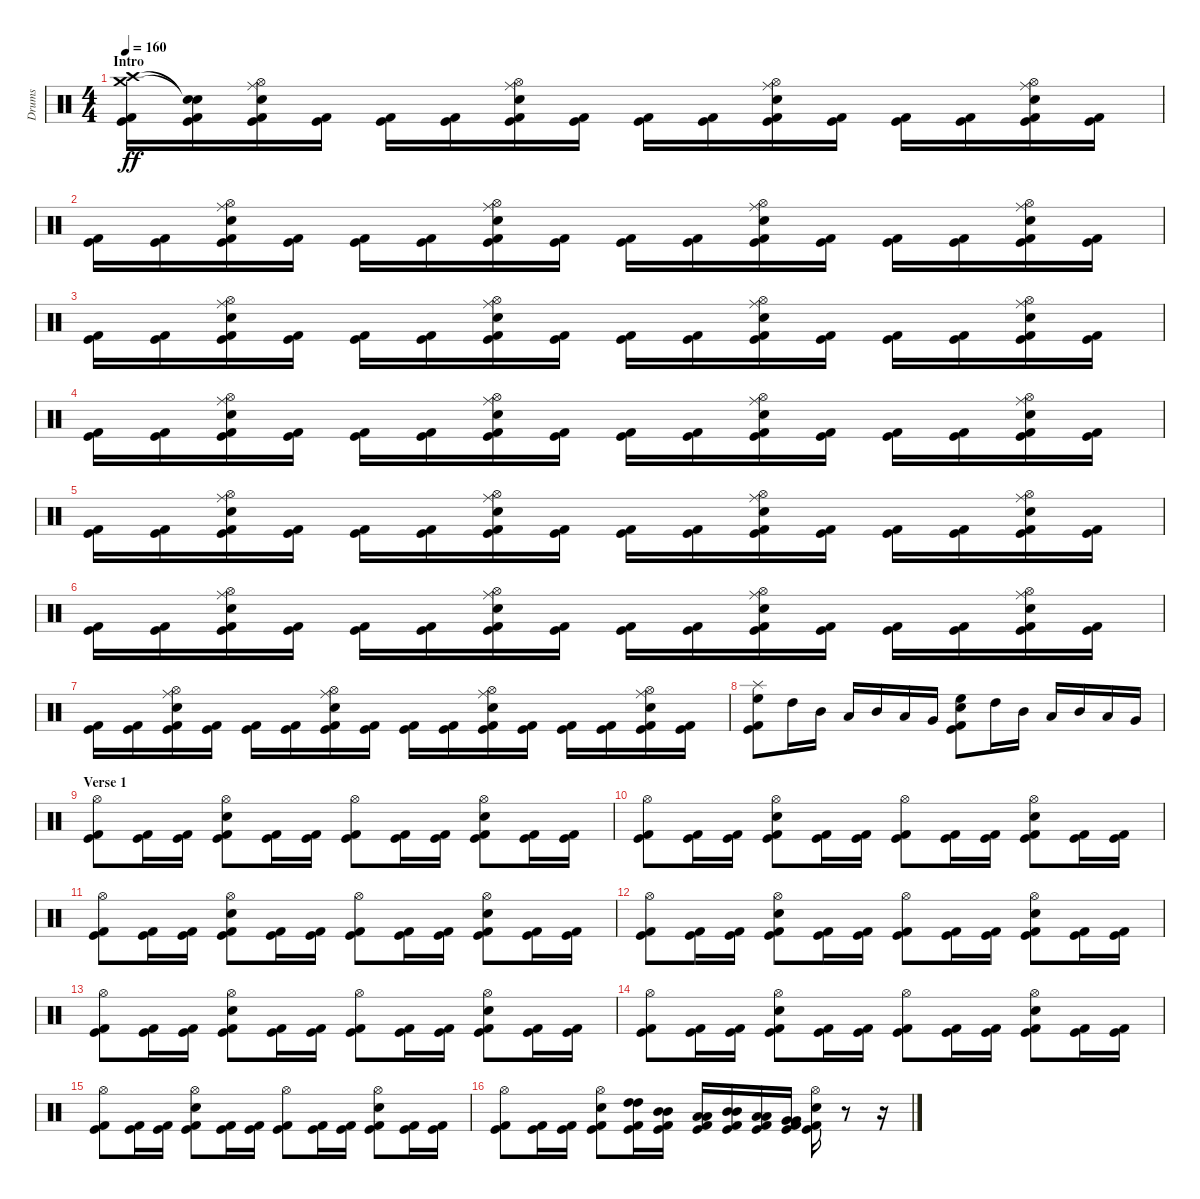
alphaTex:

\track ("Drums" "Drums") {instrument percussion}
\staff {score}
\articulation defaults
\ts (4 4)
\section ("" "Intro")
\tempo 160
\clef neutral
\ks c
("Kick (hit) 2" "Kick (hit)" "Crash high (hit)" "Crash medium (hit)").16{dy ff} ("Kick (hit) 2" "Kick (hit)" "Snare (hit)"{t} "Snare (hit)"{t}).16 ("Kick (hit) 2" "Kick (hit)" "Hi-Hat (open)" "Snare (hit) 2" "Ride (middle)").16 ("Kick (hit) 2" "Kick (hit)").16 ("Kick (hit) 2" "Kick (hit)").16 ("Kick (hit) 2" "Kick (hit)").16 ("Kick (hit) 2" "Kick (hit)" "Hi-Hat (open)" "Snare (hit) 2" "Ride (middle)").16 ("Kick (hit) 2" "Kick (hit)").16 ("Kick (hit) 2" "Kick (hit)").16 ("Kick (hit) 2" "Kick (hit)").16 ("Kick (hit) 2" "Kick (hit)" "Hi-Hat (open)" "Snare (hit) 2" "Ride (middle)").16 ("Kick (hit) 2" "Kick (hit)").16 ("Kick (hit) 2" "Kick (hit)").16 ("Kick (hit) 2" "Kick (hit)").16 ("Kick (hit) 2" "Kick (hit)" "Hi-Hat (open)" "Snare (hit) 2" "Ride (middle)").16 ("Kick (hit) 2" "Kick (hit)").16 |
("Kick (hit) 2" "Kick (hit)").16 ("Kick (hit) 2" "Kick (hit)").16 ("Kick (hit) 2" "Kick (hit)" "Hi-Hat (open)" "Snare (hit) 2" "Ride (middle)").16 ("Kick (hit) 2" "Kick (hit)").16 ("Kick (hit) 2" "Kick (hit)").16 ("Kick (hit) 2" "Kick (hit)").16 ("Kick (hit) 2" "Kick (hit)" "Hi-Hat (open)" "Snare (hit) 2" "Ride (middle)").16 ("Kick (hit) 2" "Kick (hit)").16 ("Kick (hit) 2" "Kick (hit)").16 ("Kick (hit) 2" "Kick (hit)").16 ("Kick (hit) 2" "Kick (hit)" "Hi-Hat (open)" "Snare (hit) 2" "Ride (middle)").16 ("Kick (hit) 2" "Kick (hit)").16 ("Kick (hit) 2" "Kick (hit)").16 ("Kick (hit) 2" "Kick (hit)").16 ("Kick (hit) 2" "Kick (hit)" "Hi-Hat (open)" "Snare (hit) 2" "Ride (middle)").16 ("Kick (hit) 2" "Kick (hit)").16 |
("Kick (hit) 2" "Kick (hit)").16 ("Kick (hit) 2" "Kick (hit)").16 ("Kick (hit) 2" "Kick (hit)" "Hi-Hat (open)" "Snare (hit) 2" "Ride (middle)").16 ("Kick (hit) 2" "Kick (hit)").16 ("Kick (hit) 2" "Kick (hit)").16 ("Kick (hit) 2" "Kick (hit)").16 ("Kick (hit) 2" "Kick (hit)" "Hi-Hat (open)" "Snare (hit) 2" "Ride (middle)").16 ("Kick (hit) 2" "Kick (hit)").16 ("Kick (hit) 2" "Kick (hit)").16 ("Kick (hit) 2" "Kick (hit)").16 ("Kick (hit) 2" "Kick (hit)" "Hi-Hat (open)" "Snare (hit) 2" "Ride (middle)").16 ("Kick (hit) 2" "Kick (hit)").16 ("Kick (hit) 2" "Kick (hit)").16 ("Kick (hit) 2" "Kick (hit)").16 ("Kick (hit) 2" "Kick (hit)" "Hi-Hat (open)" "Snare (hit) 2" "Ride (middle)").16 ("Kick (hit) 2" "Kick (hit)").16 |
("Kick (hit) 2" "Kick (hit)").16 ("Kick (hit) 2" "Kick (hit)").16 ("Kick (hit) 2" "Kick (hit)" "Hi-Hat (open)" "Snare (hit) 2" "Ride (middle)").16 ("Kick (hit) 2" "Kick (hit)").16 ("Kick (hit) 2" "Kick (hit)").16 ("Kick (hit) 2" "Kick (hit)").16 ("Kick (hit) 2" "Kick (hit)" "Hi-Hat (open)" "Snare (hit) 2" "Ride (middle)").16 ("Kick (hit) 2" "Kick (hit)").16 ("Kick (hit) 2" "Kick (hit)").16 ("Kick (hit) 2" "Kick (hit)").16 ("Kick (hit) 2" "Kick (hit)" "Hi-Hat (open)" "Snare (hit) 2" "Ride (middle)").16 ("Kick (hit) 2" "Kick (hit)").16 ("Kick (hit) 2" "Kick (hit)").16 ("Kick (hit) 2" "Kick (hit)").16 ("Kick (hit) 2" "Kick (hit)" "Hi-Hat (open)" "Snare (hit) 2" "Ride (middle)").16 ("Kick (hit) 2" "Kick (hit)").16 |
("Kick (hit) 2" "Kick (hit)").16 ("Kick (hit) 2" "Kick (hit)").16 ("Kick (hit) 2" "Kick (hit)" "Hi-Hat (open)" "Snare (hit) 2" "Ride (middle)").16 ("Kick (hit) 2" "Kick (hit)").16 ("Kick (hit) 2" "Kick (hit)").16 ("Kick (hit) 2" "Kick (hit)").16 ("Kick (hit) 2" "Kick (hit)" "Hi-Hat (open)" "Snare (hit) 2" "Ride (middle)").16 ("Kick (hit) 2" "Kick (hit)").16 ("Kick (hit) 2" "Kick (hit)").16 ("Kick (hit) 2" "Kick (hit)").16 ("Kick (hit) 2" "Kick (hit)" "Hi-Hat (open)" "Snare (hit) 2" "Ride (middle)").16 ("Kick (hit) 2" "Kick (hit)").16 ("Kick (hit) 2" "Kick (hit)").16 ("Kick (hit) 2" "Kick (hit)").16 ("Kick (hit) 2" "Kick (hit)" "Hi-Hat (open)" "Snare (hit) 2" "Ride (middle)").16 ("Kick (hit) 2" "Kick (hit)").16 |
("Kick (hit) 2" "Kick (hit)").16 ("Kick (hit) 2" "Kick (hit)").16 ("Kick (hit) 2" "Kick (hit)" "Hi-Hat (open)" "Snare (hit) 2" "Ride (middle)").16 ("Kick (hit) 2" "Kick (hit)").16 ("Kick (hit) 2" "Kick (hit)").16 ("Kick (hit) 2" "Kick (hit)").16 ("Kick (hit) 2" "Kick (hit)" "Hi-Hat (open)" "Snare (hit) 2" "Ride (middle)").16 ("Kick (hit) 2" "Kick (hit)").16 ("Kick (hit) 2" "Kick (hit)").16 ("Kick (hit) 2" "Kick (hit)").16 ("Kick (hit) 2" "Kick (hit)" "Hi-Hat (open)" "Snare (hit) 2" "Ride (middle)").16 ("Kick (hit) 2" "Kick (hit)").16 ("Kick (hit) 2" "Kick (hit)").16 ("Kick (hit) 2" "Kick (hit)").16 ("Kick (hit) 2" "Kick (hit)" "Hi-Hat (open)" "Snare (hit) 2" "Ride (middle)").16 ("Kick (hit) 2" "Kick (hit)").16 |
("Kick (hit) 2" "Kick (hit)").16 ("Kick (hit) 2" "Kick (hit)").16 ("Kick (hit) 2" "Kick (hit)" "Hi-Hat (open)" "Snare (hit) 2" "Ride (middle)").16 ("Kick (hit) 2" "Kick (hit)").16 ("Kick (hit) 2" "Kick (hit)").16 ("Kick (hit) 2" "Kick (hit)").16 ("Kick (hit) 2" "Kick (hit)" "Hi-Hat (open)" "Snare (hit) 2" "Ride (middle)").16 ("Kick (hit) 2" "Kick (hit)").16 ("Kick (hit) 2" "Kick (hit)").16 ("Kick (hit) 2" "Kick (hit)").16 ("Kick (hit) 2" "Kick (hit)" "Hi-Hat (open)" "Snare (hit) 2" "Ride (middle)").16 ("Kick (hit) 2" "Kick (hit)").16 ("Kick (hit) 2" "Kick (hit)").16 ("Kick (hit) 2" "Kick (hit)").16 ("Kick (hit) 2" "Kick (hit)" "Hi-Hat (open)" "Snare (hit) 2" "Ride (middle)").16 ("Kick (hit) 2" "Kick (hit)").16 |
("Kick (hit) 2" "Kick (hit)" "High Floor Tom (hit)" "Splash (hit)").8 "High Tom (hit)".16 "Mid Tom (hit)".16 "Low Tom (hit)".16 "Mid Tom (hit)".16 "Low Tom (hit)".16 "Very Low Tom (hit)".16 ("Kick (hit) 2" "Kick (hit)" "Snare (hit) 2" "High Floor Tom (hit)").8 "High Tom (hit)".16 "Mid Tom (hit)".16 "Low Tom (hit)".16 "Mid Tom (hit)".16 "Low Tom (hit)".16 "Very Low Tom (hit)".16 |
\section ("" "Verse 1")
("Kick (hit) 2" "Kick (hit)" "Hi-Hat (open)").8 ("Kick (hit) 2" "Kick (hit)").16 ("Kick (hit) 2" "Kick (hit)").16 ("Kick (hit) 2" "Kick (hit)" "Snare (hit) 2" "Hi-Hat (open)").8 ("Kick (hit) 2" "Kick (hit)").16 ("Kick (hit) 2" "Kick (hit)").16 ("Kick (hit) 2" "Kick (hit)" "Hi-Hat (open)").8 ("Kick (hit) 2" "Kick (hit)").16 ("Kick (hit) 2" "Kick (hit)").16 ("Kick (hit) 2" "Kick (hit)" "Snare (hit) 2" "Hi-Hat (open)").8 ("Kick (hit) 2" "Kick (hit)").16 ("Kick (hit) 2" "Kick (hit)").16 |
("Kick (hit) 2" "Kick (hit)" "Hi-Hat (open)").8 ("Kick (hit) 2" "Kick (hit)").16 ("Kick (hit) 2" "Kick (hit)").16 ("Kick (hit) 2" "Kick (hit)" "Snare (hit) 2" "Hi-Hat (open)").8 ("Kick (hit) 2" "Kick (hit)").16 ("Kick (hit) 2" "Kick (hit)").16 ("Kick (hit) 2" "Kick (hit)" "Hi-Hat (open)").8 ("Kick (hit) 2" "Kick (hit)").16 ("Kick (hit) 2" "Kick (hit)").16 ("Kick (hit) 2" "Kick (hit)" "Snare (hit) 2" "Hi-Hat (open)").8 ("Kick (hit) 2" "Kick (hit)").16 ("Kick (hit) 2" "Kick (hit)").16 |
("Kick (hit) 2" "Kick (hit)" "Hi-Hat (open)").8 ("Kick (hit) 2" "Kick (hit)").16 ("Kick (hit) 2" "Kick (hit)").16 ("Kick (hit) 2" "Kick (hit)" "Snare (hit) 2" "Hi-Hat (open)").8 ("Kick (hit) 2" "Kick (hit)").16 ("Kick (hit) 2" "Kick (hit)").16 ("Kick (hit) 2" "Kick (hit)" "Hi-Hat (open)").8 ("Kick (hit) 2" "Kick (hit)").16 ("Kick (hit) 2" "Kick (hit)").16 ("Kick (hit) 2" "Kick (hit)" "Snare (hit) 2" "Hi-Hat (open)").8 ("Kick (hit) 2" "Kick (hit)").16 ("Kick (hit) 2" "Kick (hit)").16 |
("Kick (hit) 2" "Kick (hit)" "Hi-Hat (open)").8 ("Kick (hit) 2" "Kick (hit)").16 ("Kick (hit) 2" "Kick (hit)").16 ("Kick (hit) 2" "Kick (hit)" "Snare (hit) 2" "Hi-Hat (open)").8 ("Kick (hit) 2" "Kick (hit)").16 ("Kick (hit) 2" "Kick (hit)").16 ("Kick (hit) 2" "Kick (hit)" "Hi-Hat (open)").8 ("Kick (hit) 2" "Kick (hit)").16 ("Kick (hit) 2" "Kick (hit)").16 ("Kick (hit) 2" "Kick (hit)" "Snare (hit) 2" "Hi-Hat (open)").8 ("Kick (hit) 2" "Kick (hit)").16 ("Kick (hit) 2" "Kick (hit)").16 |
("Kick (hit) 2" "Kick (hit)" "Hi-Hat (open)").8 ("Kick (hit) 2" "Kick (hit)").16 ("Kick (hit) 2" "Kick (hit)").16 ("Kick (hit) 2" "Kick (hit)" "Snare (hit) 2" "Hi-Hat (open)").8 ("Kick (hit) 2" "Kick (hit)").16 ("Kick (hit) 2" "Kick (hit)").16 ("Kick (hit) 2" "Kick (hit)" "Hi-Hat (open)").8 ("Kick (hit) 2" "Kick (hit)").16 ("Kick (hit) 2" "Kick (hit)").16 ("Kick (hit) 2" "Kick (hit)" "Snare (hit) 2" "Hi-Hat (open)").8 ("Kick (hit) 2" "Kick (hit)").16 ("Kick (hit) 2" "Kick (hit)").16 |
("Kick (hit) 2" "Kick (hit)" "Hi-Hat (open)").8 ("Kick (hit) 2" "Kick (hit)").16 ("Kick (hit) 2" "Kick (hit)").16 ("Kick (hit) 2" "Kick (hit)" "Snare (hit) 2" "Hi-Hat (open)").8 ("Kick (hit) 2" "Kick (hit)").16 ("Kick (hit) 2" "Kick (hit)").16 ("Kick (hit) 2" "Kick (hit)" "Hi-Hat (open)").8 ("Kick (hit) 2" "Kick (hit)").16 ("Kick (hit) 2" "Kick (hit)").16 ("Kick (hit) 2" "Kick (hit)" "Snare (hit) 2" "Hi-Hat (open)").8 ("Kick (hit) 2" "Kick (hit)").16 ("Kick (hit) 2" "Kick (hit)").16 |
("Kick (hit) 2" "Kick (hit)" "Hi-Hat (open)").8 ("Kick (hit) 2" "Kick (hit)").16 ("Kick (hit) 2" "Kick (hit)").16 ("Kick (hit) 2" "Kick (hit)" "Snare (hit) 2" "Hi-Hat (open)").8 ("Kick (hit) 2" "Kick (hit)").16 ("Kick (hit) 2" "Kick (hit)").16 ("Kick (hit) 2" "Kick (hit)" "Hi-Hat (open)").8 ("Kick (hit) 2" "Kick (hit)").16 ("Kick (hit) 2" "Kick (hit)").16 ("Kick (hit) 2" "Kick (hit)" "Snare (hit) 2" "Hi-Hat (open)").8 ("Kick (hit) 2" "Kick (hit)").16 ("Kick (hit) 2" "Kick (hit)").16 |
("Kick (hit) 2" "Kick (hit)" "Hi-Hat (open)").8 ("Kick (hit) 2" "Kick (hit)").16 ("Kick (hit) 2" "Kick (hit)").16 ("Kick (hit) 2" "Kick (hit)" "Snare (hit) 2" "Hi-Hat (open)").8 ("Kick (hit) 2" "Kick (hit)" "High Tom (hit)" "High Tom (hit)").16 ("Kick (hit) 2" "Kick (hit)" "Mid Tom (hit)" "Mid Tom (hit)").16 ("Kick (hit) 2" "Kick (hit)" "Low Tom (hit)" "Low Tom (hit)").16 ("Kick (hit) 2" "Kick (hit)" "Mid Tom (hit)" "Mid Tom (hit)").16 ("Kick (hit) 2" "Kick (hit)" "Low Tom (hit)" "Low Tom (hit)").16 ("Kick (hit) 2" "Kick (hit)" "Very Low Tom (hit)" "Very Low Tom (hit)").16 ("Kick (hit) 2" "Kick (hit)" "Snare (hit) 2" "Hi-Hat (open)").16 r.8 r.16
